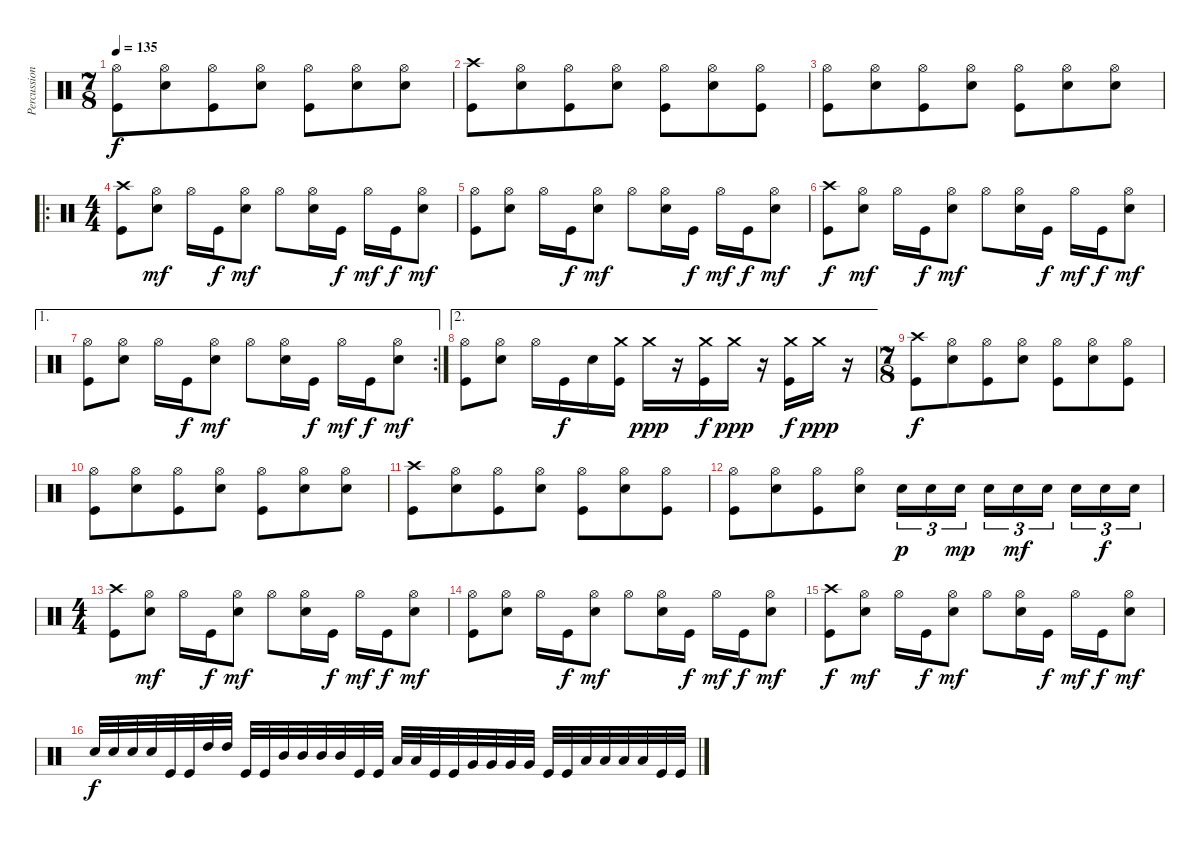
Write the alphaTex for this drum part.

\track ("Percussion" "Percussion") {instrument percussion}
\staff {score}
\articulation defaults
\ts (7 8)
\tempo 135
\clef neutral
\ks c
("Hi-Hat (open)" "Kick (hit)").8{dy f} ("Hi-Hat (open)" "Electric Snare (hit)").8 ("Hi-Hat (open)" "Kick (hit)").8 ("Hi-Hat (open)" "Electric Snare (hit)").8 ("Hi-Hat (open)" "Kick (hit)").8 ("Hi-Hat (open)" "Electric Snare (hit)").8 ("Hi-Hat (open)" "Electric Snare (hit)").8 |
("Crash high (hit)" "Kick (hit)").8 ("Hi-Hat (open)" "Electric Snare (hit)").8 ("Hi-Hat (open)" "Kick (hit)").8 ("Hi-Hat (open)" "Electric Snare (hit)").8 ("Hi-Hat (open)" "Kick (hit)").8 ("Hi-Hat (open)" "Electric Snare (hit)").8 ("Hi-Hat (open)" "Kick (hit)").8 |
("Hi-Hat (open)" "Kick (hit)").8 ("Hi-Hat (open)" "Electric Snare (hit)").8 ("Hi-Hat (open)" "Kick (hit)").8 ("Hi-Hat (open)" "Electric Snare (hit)").8 ("Hi-Hat (open)" "Kick (hit)").8 ("Hi-Hat (open)" "Electric Snare (hit)").8 ("Hi-Hat (open)" "Electric Snare (hit)").8 |
\ro
\ts (4 4)
("Crash high (hit)" "Kick (hit)").8 ("Hi-Hat (open)" "Electric Snare (hit)").8{dy mf} "Hi-Hat (open)".16 "Kick (hit)".16{dy f} ("Hi-Hat (open)" "Electric Snare (hit)").8{dy mf} "Hi-Hat (open)".8 ("Hi-Hat (open)" "Electric Snare (hit)").16 "Kick (hit)".16{dy f} "Hi-Hat (open)".16{dy mf} "Kick (hit)".16{dy f} ("Hi-Hat (open)" "Electric Snare (hit)").8{dy mf} |
("Hi-Hat (open)" "Kick (hit)").8 ("Hi-Hat (open)" "Electric Snare (hit)").8 "Hi-Hat (open)".16 "Kick (hit)".16{dy f} ("Hi-Hat (open)" "Electric Snare (hit)").8{dy mf} "Hi-Hat (open)".8 ("Hi-Hat (open)" "Electric Snare (hit)").16 "Kick (hit)".16{dy f} "Hi-Hat (open)".16{dy mf} "Kick (hit)".16{dy f} ("Hi-Hat (open)" "Electric Snare (hit)").8{dy mf} |
("Crash high (hit)" "Kick (hit)").8{dy f} ("Hi-Hat (open)" "Electric Snare (hit)").8{dy mf} "Hi-Hat (open)".16 "Kick (hit)".16{dy f} ("Hi-Hat (open)" "Electric Snare (hit)").8{dy mf} "Hi-Hat (open)".8 ("Hi-Hat (open)" "Electric Snare (hit)").16 "Kick (hit)".16{dy f} "Hi-Hat (open)".16{dy mf} "Kick (hit)".16{dy f} ("Hi-Hat (open)" "Electric Snare (hit)").8{dy mf} |
\ae 1
\rc 2
("Hi-Hat (open)" "Kick (hit)").8 ("Hi-Hat (open)" "Electric Snare (hit)").8 "Hi-Hat (open)".16 "Kick (hit)".16{dy f} ("Hi-Hat (open)" "Electric Snare (hit)").8{dy mf} "Hi-Hat (open)".8 ("Hi-Hat (open)" "Electric Snare (hit)").16 "Kick (hit)".16{dy f} "Hi-Hat (open)".16{dy mf} "Kick (hit)".16{dy f} ("Hi-Hat (open)" "Electric Snare (hit)").8{dy mf} |
\ae 2
("Hi-Hat (open)" "Kick (hit)").8 ("Hi-Hat (open)" "Electric Snare (hit)").8 "Hi-Hat (open)".16 "Kick (hit)".16{dy f} "Electric Snare (hit)".16 ("Crash medium (hit)" "Kick (hit)").16 "Crash medium (hit)".16{dy ppp} r.16 ("Crash medium (hit)" "Kick (hit)").16{dy f} "Crash medium (hit)".16{dy ppp} r.16 ("Crash medium (hit)" "Kick (hit)").16{dy f} "Crash medium (hit)".16{dy ppp} r.16 |
\ts (7 8)
("Crash high (hit)" "Kick (hit)").8{dy f} ("Hi-Hat (open)" "Electric Snare (hit)").8 ("Hi-Hat (open)" "Kick (hit)").8 ("Hi-Hat (open)" "Electric Snare (hit)").8 ("Hi-Hat (open)" "Kick (hit)").8 ("Hi-Hat (open)" "Electric Snare (hit)").8 ("Hi-Hat (open)" "Kick (hit)").8 |
("Hi-Hat (open)" "Kick (hit)").8 ("Hi-Hat (open)" "Electric Snare (hit)").8 ("Hi-Hat (open)" "Kick (hit)").8 ("Hi-Hat (open)" "Electric Snare (hit)").8 ("Hi-Hat (open)" "Kick (hit)").8 ("Hi-Hat (open)" "Electric Snare (hit)").8 ("Hi-Hat (open)" "Electric Snare (hit)").8 |
("Crash high (hit)" "Kick (hit)").8 ("Hi-Hat (open)" "Electric Snare (hit)").8 ("Hi-Hat (open)" "Kick (hit)").8 ("Hi-Hat (open)" "Electric Snare (hit)").8 ("Hi-Hat (open)" "Kick (hit)").8 ("Hi-Hat (open)" "Electric Snare (hit)").8 ("Hi-Hat (open)" "Kick (hit)").8 |
("Hi-Hat (open)" "Kick (hit)").8 ("Hi-Hat (open)" "Electric Snare (hit)").8 ("Hi-Hat (open)" "Kick (hit)").8 ("Hi-Hat (open)" "Electric Snare (hit)").8 "Electric Snare (hit)".16{tu (3 2) dy p} "Electric Snare (hit)".16{tu (3 2)} "Electric Snare (hit)".16{tu (3 2) dy mp} "Electric Snare (hit)".16{tu (3 2)} "Electric Snare (hit)".16{tu (3 2) dy mf} "Electric Snare (hit)".16{tu (3 2)} "Electric Snare (hit)".16{tu (3 2)} "Electric Snare (hit)".16{tu (3 2) dy f} "Electric Snare (hit)".16{tu (3 2)} |
\ts (4 4)
("Crash high (hit)" "Kick (hit)").8 ("Hi-Hat (open)" "Electric Snare (hit)").8{dy mf} "Hi-Hat (open)".16 "Kick (hit)".16{dy f} ("Hi-Hat (open)" "Electric Snare (hit)").8{dy mf} "Hi-Hat (open)".8 ("Hi-Hat (open)" "Electric Snare (hit)").16 "Kick (hit)".16{dy f} "Hi-Hat (open)".16{dy mf} "Kick (hit)".16{dy f} ("Hi-Hat (open)" "Electric Snare (hit)").8{dy mf} |
("Hi-Hat (open)" "Kick (hit)").8 ("Hi-Hat (open)" "Electric Snare (hit)").8 "Hi-Hat (open)".16 "Kick (hit)".16{dy f} ("Hi-Hat (open)" "Electric Snare (hit)").8{dy mf} "Hi-Hat (open)".8 ("Hi-Hat (open)" "Electric Snare (hit)").16 "Kick (hit)".16{dy f} "Hi-Hat (open)".16{dy mf} "Kick (hit)".16{dy f} ("Hi-Hat (open)" "Electric Snare (hit)").8{dy mf} |
("Crash high (hit)" "Kick (hit)").8{dy f} ("Hi-Hat (open)" "Electric Snare (hit)").8{dy mf} "Hi-Hat (open)".16 "Kick (hit)".16{dy f} ("Hi-Hat (open)" "Electric Snare (hit)").8{dy mf} "Hi-Hat (open)".8 ("Hi-Hat (open)" "Electric Snare (hit)").16 "Kick (hit)".16{dy f} "Hi-Hat (open)".16{dy mf} "Kick (hit)".16{dy f} ("Hi-Hat (open)" "Electric Snare (hit)").8{dy mf} |
"Electric Snare (hit)".32{dy f} "Electric Snare (hit)".32 "Electric Snare (hit)".32 "Electric Snare (hit)".32 "Kick (hit)".32 "Kick (hit)".32 "High Tom (hit)".32 "High Tom (hit)".32 "Kick (hit)".32 "Kick (hit)".32 "Mid Tom (hit)".32 "Mid Tom (hit)".32 "Mid Tom (hit)".32 "Mid Tom (hit)".32 "Kick (hit)".32 "Kick (hit)".32 "Low Tom (hit)".32 "Low Tom (hit)".32 "Kick (hit)".32 "Kick (hit)".32 "Very Low Tom (hit)".32 "Very Low Tom (hit)".32 "Very Low Tom (hit)".32 "Very Low Tom (hit)".32 "Kick (hit)".32 "Kick (hit)".32 "Low Floor Tom (hit)".32 "Low Floor Tom (hit)".32 "Low Floor Tom (hit)".32 "Low Floor Tom (hit)".32 "Kick (hit)".32 "Kick (hit)".32
